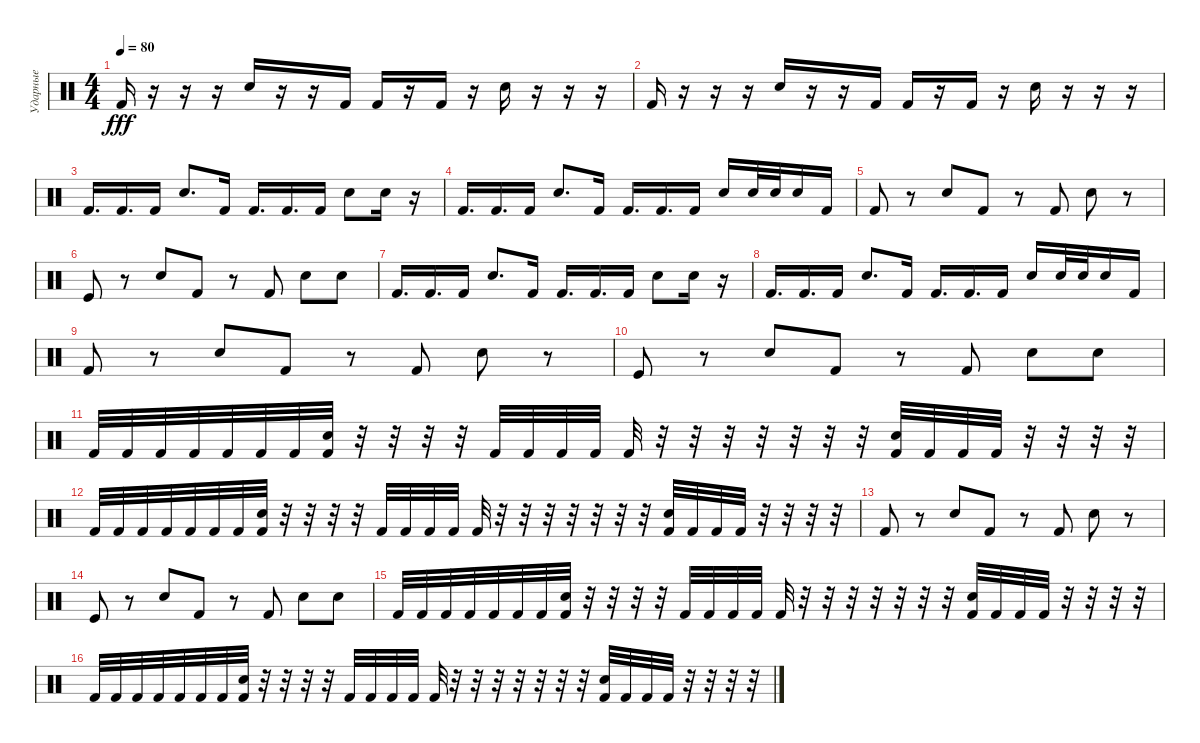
\track ("Ударные" "Ударные") {instrument percussion}
\staff {score}
\articulation defaults
\ts (4 4)
\tempo 80
\clef neutral
\ks c "Kick (hit) 2".16{dy fff}
r.16 r.16 r.16 "Electric Snare (hit)".16 r.16 r.16 "Kick (hit) 2".16 "Kick (hit) 2".16 r.16 "Kick (hit) 2".16 r.16 "Electric Snare (hit)".16 r.16 r.16 r.16 |
"Kick (hit) 2".16 r.16 r.16 r.16 "Electric Snare (hit)".16 r.16 r.16 "Kick (hit) 2".16 "Kick (hit) 2".16 r.16 "Kick (hit) 2".16 r.16 "Electric Snare (hit)".16 r.16 r.16 r.16 |
"Kick (hit) 2".16{d} "Kick (hit) 2".16{d} "Kick (hit) 2".16 "Electric Snare (hit)".8{d} "Kick (hit) 2".16 "Kick (hit) 2".16{d} "Kick (hit) 2".16{d} "Kick (hit) 2".16 "Electric Snare (hit)".8 "Electric Snare (hit)".16 r.16 |
"Kick (hit) 2".16{d} "Kick (hit) 2".16{d} "Kick (hit) 2".16 "Electric Snare (hit)".8{d} "Kick (hit) 2".16 "Kick (hit) 2".16{d} "Kick (hit) 2".16{d} "Kick (hit) 2".16 "Electric Snare (hit)".16 "Electric Snare (hit)".32 "Electric Snare (hit)".32 "Electric Snare (hit)".16 "Kick (hit) 2".16 |
"Kick (hit) 2".8 r.8 "Electric Snare (hit)".8 "Kick (hit) 2".8 r.8 "Kick (hit) 2".8 "Electric Snare (hit)".8 r.8 |
"Kick (hit)".8 r.8 "Electric Snare (hit)".8 "Kick (hit) 2".8 r.8 "Kick (hit) 2".8 "Electric Snare (hit)".8 "Electric Snare (hit)".8 |
"Kick (hit) 2".16{d} "Kick (hit) 2".16{d} "Kick (hit) 2".16 "Electric Snare (hit)".8{d} "Kick (hit) 2".16 "Kick (hit) 2".16{d} "Kick (hit) 2".16{d} "Kick (hit) 2".16 "Electric Snare (hit)".8 "Electric Snare (hit)".16 r.16 |
"Kick (hit) 2".16{d} "Kick (hit) 2".16{d} "Kick (hit) 2".16 "Electric Snare (hit)".8{d} "Kick (hit) 2".16 "Kick (hit) 2".16{d} "Kick (hit) 2".16{d} "Kick (hit) 2".16 "Electric Snare (hit)".16 "Electric Snare (hit)".32 "Electric Snare (hit)".32 "Electric Snare (hit)".16 "Kick (hit) 2".16 |
"Kick (hit) 2".8 r.8 "Electric Snare (hit)".8 "Kick (hit) 2".8 r.8 "Kick (hit) 2".8 "Electric Snare (hit)".8 r.8 |
"Kick (hit)".8 r.8 "Electric Snare (hit)".8 "Kick (hit) 2".8 r.8 "Kick (hit) 2".8 "Electric Snare (hit)".8 "Electric Snare (hit)".8 |
"Kick (hit) 2".32 "Kick (hit) 2".32 "Kick (hit) 2".32 "Kick (hit) 2".32 "Kick (hit) 2".32 "Kick (hit) 2".32 "Kick (hit) 2".32 ("Electric Snare (hit)" "Kick (hit) 2").32 r.32 r.32 r.32 r.32 "Kick (hit) 2".32 "Kick (hit) 2".32 "Kick (hit) 2".32 "Kick (hit) 2".32 "Kick (hit) 2".32 r.32 r.32 r.32 r.32 r.32 r.32 r.32 ("Electric Snare (hit)" "Kick (hit) 2").32 "Kick (hit) 2".32 "Kick (hit) 2".32 "Kick (hit) 2".32 r.32 r.32 r.32 r.32 |
"Kick (hit) 2".32 "Kick (hit) 2".32 "Kick (hit) 2".32 "Kick (hit) 2".32 "Kick (hit) 2".32 "Kick (hit) 2".32 "Kick (hit) 2".32 ("Electric Snare (hit)" "Kick (hit) 2").32 r.32 r.32 r.32 r.32 "Kick (hit) 2".32 "Kick (hit) 2".32 "Kick (hit) 2".32 "Kick (hit) 2".32 "Kick (hit) 2".32 r.32 r.32 r.32 r.32 r.32 r.32 r.32 ("Electric Snare (hit)" "Kick (hit) 2").32 "Kick (hit) 2".32 "Kick (hit) 2".32 "Kick (hit) 2".32 r.32 r.32 r.32 r.32 |
"Kick (hit) 2".8 r.8 "Electric Snare (hit)".8 "Kick (hit) 2".8 r.8 "Kick (hit) 2".8 "Electric Snare (hit)".8 r.8 |
"Kick (hit)".8 r.8 "Electric Snare (hit)".8 "Kick (hit) 2".8 r.8 "Kick (hit) 2".8 "Electric Snare (hit)".8 "Electric Snare (hit)".8 |
"Kick (hit) 2".32 "Kick (hit) 2".32 "Kick (hit) 2".32 "Kick (hit) 2".32 "Kick (hit) 2".32 "Kick (hit) 2".32 "Kick (hit) 2".32 ("Electric Snare (hit)" "Kick (hit) 2").32 r.32 r.32 r.32 r.32 "Kick (hit) 2".32 "Kick (hit) 2".32 "Kick (hit) 2".32 "Kick (hit) 2".32 "Kick (hit) 2".32 r.32 r.32 r.32 r.32 r.32 r.32 r.32 ("Electric Snare (hit)" "Kick (hit) 2").32 "Kick (hit) 2".32 "Kick (hit) 2".32 "Kick (hit) 2".32 r.32 r.32 r.32 r.32 |
"Kick (hit) 2".32 "Kick (hit) 2".32 "Kick (hit) 2".32 "Kick (hit) 2".32 "Kick (hit) 2".32 "Kick (hit) 2".32 "Kick (hit) 2".32 ("Electric Snare (hit)" "Kick (hit) 2").32 r.32 r.32 r.32 r.32 "Kick (hit) 2".32 "Kick (hit) 2".32 "Kick (hit) 2".32 "Kick (hit) 2".32 "Kick (hit) 2".32 r.32 r.32 r.32 r.32 r.32 r.32 r.32 ("Electric Snare (hit)" "Kick (hit) 2").32 "Kick (hit) 2".32 "Kick (hit) 2".32 "Kick (hit) 2".32 r.32 r.32 r.32 r.32
